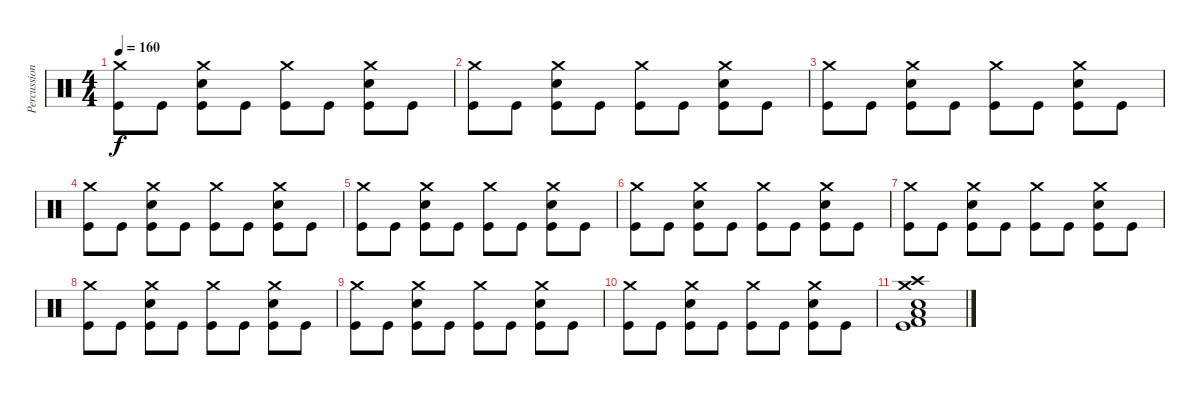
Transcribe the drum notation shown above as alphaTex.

\track ("Percussion" "Percussion") {instrument percussion}
\staff {score}
\articulation defaults
\ts (4 4)
\tempo 160
\clef neutral
\ks c
("Crash medium (hit)" "Kick (hit)").8{dy f} "Kick (hit)".8 ("Crash medium (hit)" "Electric Snare (hit)" "Kick (hit)").8 "Kick (hit)".8 ("Crash medium (hit)" "Kick (hit)").8 "Kick (hit)".8 ("Crash medium (hit)" "Electric Snare (hit)" "Kick (hit)").8 "Kick (hit)".8 |
("Crash medium (hit)" "Kick (hit)").8 "Kick (hit)".8 ("Crash medium (hit)" "Electric Snare (hit)" "Kick (hit)").8 "Kick (hit)".8 ("Crash medium (hit)" "Kick (hit)").8 "Kick (hit)".8 ("Crash medium (hit)" "Electric Snare (hit)" "Kick (hit)").8 "Kick (hit)".8 |
("Crash medium (hit)" "Kick (hit)").8 "Kick (hit)".8 ("Crash medium (hit)" "Electric Snare (hit)" "Kick (hit)").8 "Kick (hit)".8 ("Crash medium (hit)" "Kick (hit)").8 "Kick (hit)".8 ("Crash medium (hit)" "Electric Snare (hit)" "Kick (hit)").8 "Kick (hit)".8 |
("Crash medium (hit)" "Kick (hit)").8 "Kick (hit)".8 ("Crash medium (hit)" "Electric Snare (hit)" "Kick (hit)").8 "Kick (hit)".8 ("Crash medium (hit)" "Kick (hit)").8 "Kick (hit)".8 ("Crash medium (hit)" "Electric Snare (hit)" "Kick (hit)").8 "Kick (hit)".8 |
("Crash medium (hit)" "Kick (hit)").8 "Kick (hit)".8 ("Crash medium (hit)" "Electric Snare (hit)" "Kick (hit)").8 "Kick (hit)".8 ("Crash medium (hit)" "Kick (hit)").8 "Kick (hit)".8 ("Crash medium (hit)" "Electric Snare (hit)" "Kick (hit)").8 "Kick (hit)".8 |
("Crash medium (hit)" "Kick (hit)").8 "Kick (hit)".8 ("Crash medium (hit)" "Electric Snare (hit)" "Kick (hit)").8 "Kick (hit)".8 ("Crash medium (hit)" "Kick (hit)").8 "Kick (hit)".8 ("Crash medium (hit)" "Electric Snare (hit)" "Kick (hit)").8 "Kick (hit)".8 |
("Crash medium (hit)" "Kick (hit)").8 "Kick (hit)".8 ("Crash medium (hit)" "Electric Snare (hit)" "Kick (hit)").8 "Kick (hit)".8 ("Crash medium (hit)" "Kick (hit)").8 "Kick (hit)".8 ("Crash medium (hit)" "Electric Snare (hit)" "Kick (hit)").8 "Kick (hit)".8 |
("Crash medium (hit)" "Kick (hit)").8 "Kick (hit)".8 ("Crash medium (hit)" "Electric Snare (hit)" "Kick (hit)").8 "Kick (hit)".8 ("Crash medium (hit)" "Kick (hit)").8 "Kick (hit)".8 ("Crash medium (hit)" "Electric Snare (hit)" "Kick (hit)").8 "Kick (hit)".8 |
("Crash medium (hit)" "Kick (hit)").8 "Kick (hit)".8 ("Crash medium (hit)" "Electric Snare (hit)" "Kick (hit)").8 "Kick (hit)".8 ("Crash medium (hit)" "Kick (hit)").8 "Kick (hit)".8 ("Crash medium (hit)" "Electric Snare (hit)" "Kick (hit)").8 "Kick (hit)".8 |
("Crash medium (hit)" "Kick (hit)").8 "Kick (hit)".8 ("Crash medium (hit)" "Electric Snare (hit)" "Kick (hit)").8 "Kick (hit)".8 ("Crash medium (hit)" "Kick (hit)").8 "Kick (hit)".8 ("Crash medium (hit)" "Electric Snare (hit)" "Kick (hit)").8 "Kick (hit)".8 |
("Crash medium (hit)" "Crash high (hit)" "Electric Snare (hit)" "Low Floor Tom (hit)" "Kick (hit) 2" "Kick (hit)").1
